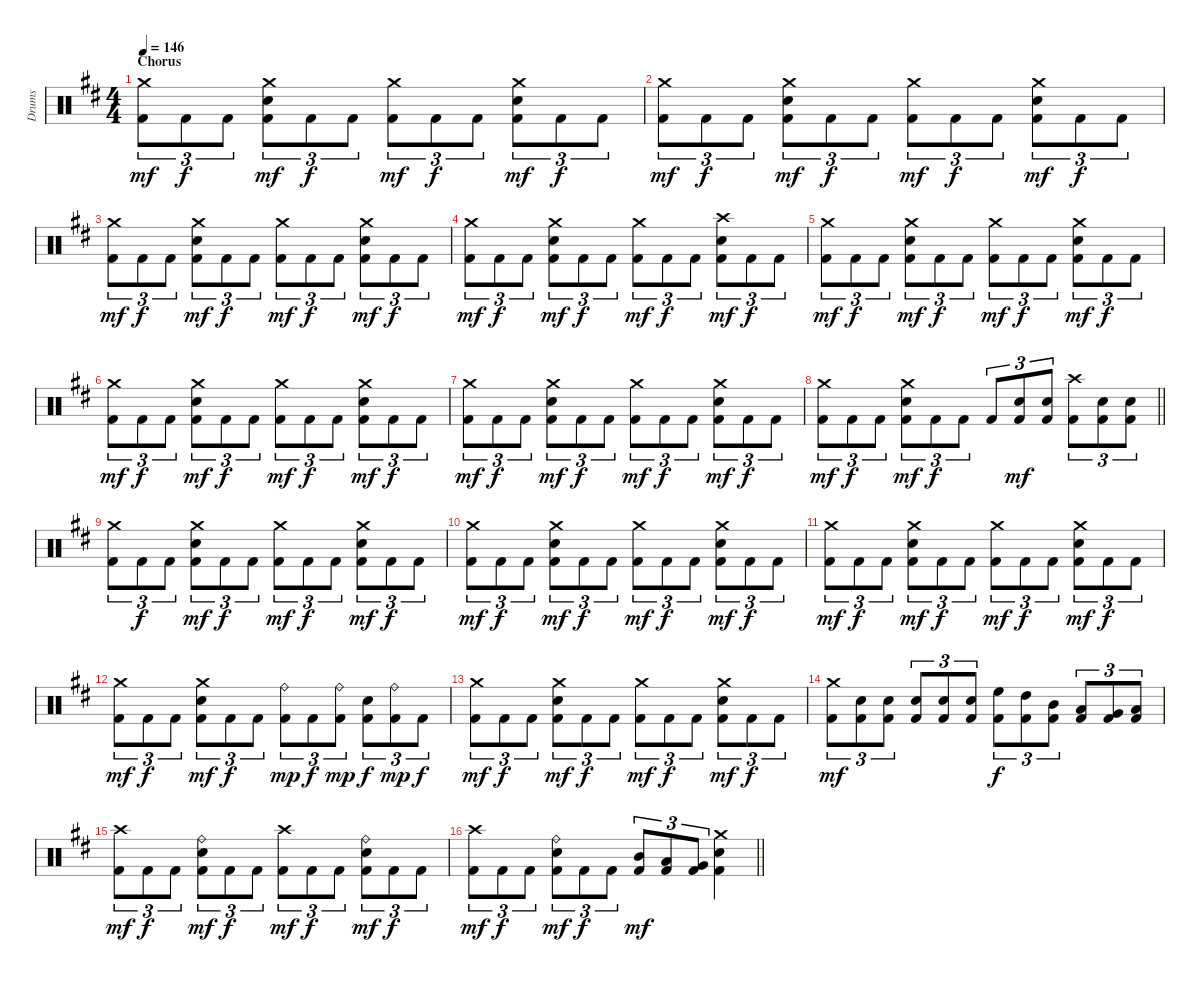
\track ("Drums" "Drums") {instrument percussion}
\staff {score}
\articulation defaults
\ts (4 4)
\section ("" "Chorus")
\tempo 146
\clef neutral
\ks bminor
("Crash medium (hit)" "Kick (hit) 2").8{tu (3 2) dy mf} "Kick (hit) 2".8{tu (3 2) dy f} "Kick (hit) 2".8{tu (3 2)} ("Crash medium (hit)" "Electric Snare (hit)" "Kick (hit) 2").8{tu (3 2) dy mf} "Kick (hit) 2".8{tu (3 2) dy f} "Kick (hit) 2".8{tu (3 2)} ("Crash medium (hit)" "Kick (hit) 2").8{tu (3 2) dy mf} "Kick (hit) 2".8{tu (3 2) dy f} "Kick (hit) 2".8{tu (3 2)} ("Crash medium (hit)" "Electric Snare (hit)" "Kick (hit) 2").8{tu (3 2) dy mf} "Kick (hit) 2".8{tu (3 2) dy f} "Kick (hit) 2".8{tu (3 2)} |
("Crash medium (hit)" "Kick (hit) 2").8{tu (3 2) dy mf} "Kick (hit) 2".8{tu (3 2) dy f} "Kick (hit) 2".8{tu (3 2)} ("Crash medium (hit)" "Electric Snare (hit)" "Kick (hit) 2").8{tu (3 2) dy mf} "Kick (hit) 2".8{tu (3 2) dy f} "Kick (hit) 2".8{tu (3 2)} ("Crash medium (hit)" "Kick (hit) 2").8{tu (3 2) dy mf} "Kick (hit) 2".8{tu (3 2) dy f} "Kick (hit) 2".8{tu (3 2)} ("Crash medium (hit)" "Electric Snare (hit)" "Kick (hit) 2").8{tu (3 2) dy mf} "Kick (hit) 2".8{tu (3 2) dy f} "Kick (hit) 2".8{tu (3 2)} |
("Crash medium (hit)" "Kick (hit) 2").8{tu (3 2) dy mf} "Kick (hit) 2".8{tu (3 2) dy f} "Kick (hit) 2".8{tu (3 2)} ("Crash medium (hit)" "Electric Snare (hit)" "Kick (hit) 2").8{tu (3 2) dy mf} "Kick (hit) 2".8{tu (3 2) dy f} "Kick (hit) 2".8{tu (3 2)} ("Crash medium (hit)" "Kick (hit) 2").8{tu (3 2) dy mf} "Kick (hit) 2".8{tu (3 2) dy f} "Kick (hit) 2".8{tu (3 2)} ("Crash medium (hit)" "Electric Snare (hit)" "Kick (hit) 2").8{tu (3 2) dy mf} "Kick (hit) 2".8{tu (3 2) dy f} "Kick (hit) 2".8{tu (3 2)} |
("Crash medium (hit)" "Kick (hit) 2").8{tu (3 2) dy mf} "Kick (hit) 2".8{tu (3 2) dy f} "Kick (hit) 2".8{tu (3 2)} ("Crash medium (hit)" "Electric Snare (hit)" "Kick (hit) 2").8{tu (3 2) dy mf} "Kick (hit) 2".8{tu (3 2) dy f} "Kick (hit) 2".8{tu (3 2)} ("Crash medium (hit)" "Kick (hit) 2").8{tu (3 2) dy mf} "Kick (hit) 2".8{tu (3 2) dy f} "Kick (hit) 2".8{tu (3 2)} ("Crash high (hit)" "Electric Snare (hit)" "Kick (hit) 2").8{tu (3 2) dy mf} "Kick (hit) 2".8{tu (3 2) dy f} "Kick (hit) 2".8{tu (3 2)} |
("Crash medium (hit)" "Kick (hit) 2").8{tu (3 2) dy mf} "Kick (hit) 2".8{tu (3 2) dy f} "Kick (hit) 2".8{tu (3 2)} ("Crash medium (hit)" "Electric Snare (hit)" "Kick (hit) 2").8{tu (3 2) dy mf} "Kick (hit) 2".8{tu (3 2) dy f} "Kick (hit) 2".8{tu (3 2)} ("Crash medium (hit)" "Kick (hit) 2").8{tu (3 2) dy mf} "Kick (hit) 2".8{tu (3 2) dy f} "Kick (hit) 2".8{tu (3 2)} ("Crash medium (hit)" "Electric Snare (hit)" "Kick (hit) 2").8{tu (3 2) dy mf} "Kick (hit) 2".8{tu (3 2) dy f} "Kick (hit) 2".8{tu (3 2)} |
("Crash medium (hit)" "Kick (hit) 2").8{tu (3 2) dy mf} "Kick (hit) 2".8{tu (3 2) dy f} "Kick (hit) 2".8{tu (3 2)} ("Crash medium (hit)" "Electric Snare (hit)" "Kick (hit) 2").8{tu (3 2) dy mf} "Kick (hit) 2".8{tu (3 2) dy f} "Kick (hit) 2".8{tu (3 2)} ("Crash medium (hit)" "Kick (hit) 2").8{tu (3 2) dy mf} "Kick (hit) 2".8{tu (3 2) dy f} "Kick (hit) 2".8{tu (3 2)} ("Crash medium (hit)" "Electric Snare (hit)" "Kick (hit) 2").8{tu (3 2) dy mf} "Kick (hit) 2".8{tu (3 2) dy f} "Kick (hit) 2".8{tu (3 2)} |
("Crash medium (hit)" "Kick (hit) 2").8{tu (3 2) dy mf} "Kick (hit) 2".8{tu (3 2) dy f} "Kick (hit) 2".8{tu (3 2)} ("Crash medium (hit)" "Electric Snare (hit)" "Kick (hit) 2").8{tu (3 2) dy mf} "Kick (hit) 2".8{tu (3 2) dy f} "Kick (hit) 2".8{tu (3 2)} ("Crash medium (hit)" "Kick (hit) 2").8{tu (3 2) dy mf} "Kick (hit) 2".8{tu (3 2) dy f} "Kick (hit) 2".8{tu (3 2)} ("Crash medium (hit)" "Electric Snare (hit)" "Kick (hit) 2").8{tu (3 2) dy mf} "Kick (hit) 2".8{tu (3 2) dy f} "Kick (hit) 2".8{tu (3 2)} |
\barLineRight lightlight
("Crash medium (hit)" "Kick (hit) 2").8{tu (3 2) dy mf} "Kick (hit) 2".8{tu (3 2) dy f} "Kick (hit) 2".8{tu (3 2)} ("Crash medium (hit)" "Electric Snare (hit)" "Kick (hit) 2").8{tu (3 2) dy mf} "Kick (hit) 2".8{tu (3 2) dy f} "Kick (hit) 2".8{tu (3 2)} "Kick (hit) 2".8{tu (3 2)} ("Electric Snare (hit)" "Kick (hit) 2").8{tu (3 2) dy mf} ("Electric Snare (hit)" "Kick (hit) 2").8{tu (3 2)} ("Crash high (hit)" "Kick (hit) 2").8{tu (3 2)} ("Electric Snare (hit)" "Kick (hit) 2").8{tu (3 2)} ("Electric Snare (hit)" "Kick (hit) 2").8{tu (3 2)} |
\section ("" "")
("Crash medium (hit)" "Kick (hit) 2").8{tu (3 2)} "Kick (hit) 2".8{tu (3 2) dy f} "Kick (hit) 2".8{tu (3 2)} ("Crash medium (hit)" "Electric Snare (hit)" "Kick (hit) 2").8{tu (3 2) dy mf} "Kick (hit) 2".8{tu (3 2) dy f} "Kick (hit) 2".8{tu (3 2)} ("Crash medium (hit)" "Kick (hit) 2").8{tu (3 2) dy mf} "Kick (hit) 2".8{tu (3 2) dy f} "Kick (hit) 2".8{tu (3 2)} ("Crash medium (hit)" "Electric Snare (hit)" "Kick (hit) 2").8{tu (3 2) dy mf} "Kick (hit) 2".8{tu (3 2) dy f} "Kick (hit) 2".8{tu (3 2)} |
("Crash medium (hit)" "Kick (hit) 2").8{tu (3 2) dy mf} "Kick (hit) 2".8{tu (3 2) dy f} "Kick (hit) 2".8{tu (3 2)} ("Crash medium (hit)" "Electric Snare (hit)" "Kick (hit) 2").8{tu (3 2) dy mf} "Kick (hit) 2".8{tu (3 2) dy f} "Kick (hit) 2".8{tu (3 2)} ("Crash medium (hit)" "Kick (hit) 2").8{tu (3 2) dy mf} "Kick (hit) 2".8{tu (3 2) dy f} "Kick (hit) 2".8{tu (3 2)} ("Crash medium (hit)" "Electric Snare (hit)" "Kick (hit) 2").8{tu (3 2) dy mf} "Kick (hit) 2".8{tu (3 2) dy f} "Kick (hit) 2".8{tu (3 2)} |
("Crash medium (hit)" "Kick (hit) 2").8{tu (3 2) dy mf} "Kick (hit) 2".8{tu (3 2) dy f} "Kick (hit) 2".8{tu (3 2)} ("Crash medium (hit)" "Electric Snare (hit)" "Kick (hit) 2").8{tu (3 2) dy mf} "Kick (hit) 2".8{tu (3 2) dy f} "Kick (hit) 2".8{tu (3 2)} ("Crash medium (hit)" "Kick (hit) 2").8{tu (3 2) dy mf} "Kick (hit) 2".8{tu (3 2) dy f} "Kick (hit) 2".8{tu (3 2)} ("Crash medium (hit)" "Electric Snare (hit)" "Kick (hit) 2").8{tu (3 2) dy mf} "Kick (hit) 2".8{tu (3 2) dy f} "Kick (hit) 2".8{tu (3 2)} |
("Crash medium (hit)" "Kick (hit) 2").8{tu (3 2) dy mf} "Kick (hit) 2".8{tu (3 2) dy f} "Kick (hit) 2".8{tu (3 2)} ("Crash medium (hit)" "Electric Snare (hit)" "Kick (hit) 2").8{tu (3 2) dy mf} "Kick (hit) 2".8{tu (3 2) dy f} "Kick (hit) 2".8{tu (3 2)} ("Ride (bell)" "Kick (hit) 2").8{tu (3 2) dy mp} "Kick (hit) 2".8{tu (3 2) dy f} ("Ride (bell)" "Kick (hit) 2").8{tu (3 2) dy mp} ("Electric Snare (hit)" "Kick (hit) 2").8{tu (3 2) dy f} ("Ride (bell)" "Kick (hit) 2").8{tu (3 2) dy mp} "Kick (hit) 2".8{tu (3 2) dy f} |
("Crash medium (hit)" "Kick (hit) 2").8{tu (3 2) dy mf} "Kick (hit) 2".8{tu (3 2) dy f} "Kick (hit) 2".8{tu (3 2)} ("Crash medium (hit)" "Electric Snare (hit)" "Kick (hit) 2").8{tu (3 2) dy mf} "Kick (hit) 2".8{tu (3 2) dy f} "Kick (hit) 2".8{tu (3 2)} ("Crash medium (hit)" "Kick (hit) 2").8{tu (3 2) dy mf} "Kick (hit) 2".8{tu (3 2) dy f} "Kick (hit) 2".8{tu (3 2)} ("Crash medium (hit)" "Electric Snare (hit)" "Kick (hit) 2").8{tu (3 2) dy mf} "Kick (hit) 2".8{tu (3 2) dy f} "Kick (hit) 2".8{tu (3 2)} |
("Crash medium (hit)" "Kick (hit) 2").8{tu (3 2) dy mf} ("Electric Snare (hit)" "Kick (hit) 2").8{tu (3 2)} ("Electric Snare (hit)" "Kick (hit) 2").8{tu (3 2)} ("Electric Snare (hit)" "Kick (hit) 2").8{tu (3 2)} ("Electric Snare (hit)" "Kick (hit) 2").8{tu (3 2)} ("Electric Snare (hit)" "Kick (hit) 2").8{tu (3 2)} ("High Floor Tom (hit)" "Kick (hit) 2").8{tu (3 2) dy f} ("High Tom (hit)" "Kick (hit) 2").8{tu (3 2)} ("Mid Tom (hit)" "Kick (hit) 2").8{tu (3 2)} ("Low Tom (hit)" "Kick (hit) 2").8{tu (3 2)} ("Very Low Tom (hit)" "Kick (hit) 2").8{tu (3 2)} ("Low Floor Tom (hit)" "Kick (hit) 2").8{tu (3 2)} |
("Crash high (hit)" "Kick (hit) 2").8{tu (3 2) dy mf} "Kick (hit) 2".8{tu (3 2) dy f} "Kick (hit) 2".8{tu (3 2)} ("Ride (bell)" "Electric Snare (hit)" "Kick (hit) 2").8{tu (3 2) dy mf} "Kick (hit) 2".8{tu (3 2) dy f} "Kick (hit) 2".8{tu (3 2)} ("Crash high (hit)" "Kick (hit) 2").8{tu (3 2) dy mf} "Kick (hit) 2".8{tu (3 2) dy f} "Kick (hit) 2".8{tu (3 2)} ("Ride (bell)" "Electric Snare (hit)" "Kick (hit) 2").8{tu (3 2) dy mf} "Kick (hit) 2".8{tu (3 2) dy f} "Kick (hit) 2".8{tu (3 2)} |
\barLineRight lightlight
("Crash high (hit)" "Kick (hit) 2").8{tu (3 2) dy mf} "Kick (hit) 2".8{tu (3 2) dy f} "Kick (hit) 2".8{tu (3 2)} ("Ride (bell)" "Electric Snare (hit)" "Kick (hit) 2").8{tu (3 2) dy mf} "Kick (hit) 2".8{tu (3 2) dy f} "Kick (hit) 2".8{tu (3 2)} ("Mid Tom (hit)" "Kick (hit) 2").8{tu (3 2) dy mf} ("Low Tom (hit)" "Kick (hit) 2").8{tu (3 2)} ("Very Low Tom (hit)" "Kick (hit) 2").8{tu (3 2)} ("Crash medium (hit)" "Electric Snare (hit)" "Kick (hit) 2").4
